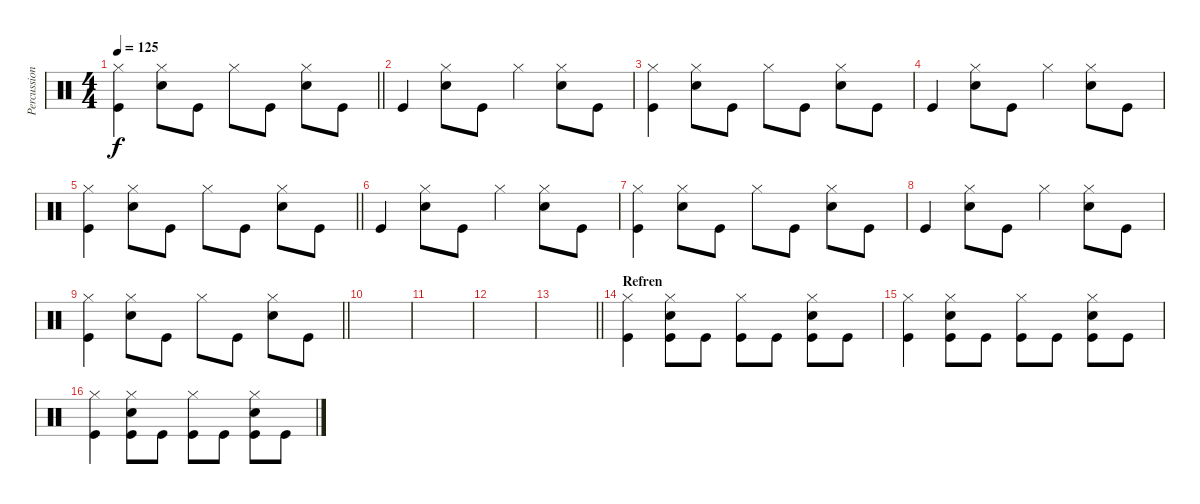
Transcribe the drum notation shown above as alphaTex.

\track ("Percussion" "Percussion") {instrument percussion}
\staff {score}
\articulation defaults
\ts (4 4)
\tempo 125
\clef neutral
\barLineRight lightlight
\ks c
("Hi-Hat (closed)" "Kick (hit)").4{dy f} ("Hi-Hat (closed)" "Snare (hit) 2").8 "Kick (hit)".8 "Hi-Hat (closed)".8 "Kick (hit)".8 ("Hi-Hat (closed)" "Snare (hit) 2").8 "Kick (hit)".8 |
\section ("" "")
"Kick (hit)".4 ("Hi-Hat (closed)" "Snare (hit) 2").8 "Kick (hit)".8 "Hi-Hat (closed)".4 ("Hi-Hat (closed)" "Snare (hit) 2").8 "Kick (hit)".8 |
("Hi-Hat (closed)" "Kick (hit)").4 ("Hi-Hat (closed)" "Snare (hit) 2").8 "Kick (hit)".8 "Hi-Hat (closed)".8 "Kick (hit)".8 ("Hi-Hat (closed)" "Snare (hit) 2").8 "Kick (hit)".8 |
"Kick (hit)".4 ("Hi-Hat (closed)" "Snare (hit) 2").8 "Kick (hit)".8 "Hi-Hat (closed)".4 ("Hi-Hat (closed)" "Snare (hit) 2").8 "Kick (hit)".8 |
\barLineRight lightlight
("Hi-Hat (closed)" "Kick (hit)").4 ("Hi-Hat (closed)" "Snare (hit) 2").8 "Kick (hit)".8 "Hi-Hat (closed)".8 "Kick (hit)".8 ("Hi-Hat (closed)" "Snare (hit) 2").8 "Kick (hit)".8 |
"Kick (hit)".4 ("Hi-Hat (closed)" "Snare (hit) 2").8 "Kick (hit)".8 "Hi-Hat (closed)".4 ("Hi-Hat (closed)" "Snare (hit) 2").8 "Kick (hit)".8 |
("Hi-Hat (closed)" "Kick (hit)").4 ("Hi-Hat (closed)" "Snare (hit) 2").8 "Kick (hit)".8 "Hi-Hat (closed)".8 "Kick (hit)".8 ("Hi-Hat (closed)" "Snare (hit) 2").8 "Kick (hit)".8 |
"Kick (hit)".4 ("Hi-Hat (closed)" "Snare (hit) 2").8 "Kick (hit)".8 "Hi-Hat (closed)".4 ("Hi-Hat (closed)" "Snare (hit) 2").8 "Kick (hit)".8 |
\barLineRight lightlight
("Hi-Hat (closed)" "Kick (hit)").4 ("Hi-Hat (closed)" "Snare (hit) 2").8 "Kick (hit)".8 "Hi-Hat (closed)".8 "Kick (hit)".8 ("Hi-Hat (closed)" "Snare (hit) 2").8 "Kick (hit)".8 |
|
|
|
\barLineRight lightlight
|
\section ("" "Refren")
("Hi-Hat (closed)" "Kick (hit)").4 ("Hi-Hat (closed)" "Kick (hit)" "Snare (hit) 2").8 "Kick (hit)".8 ("Hi-Hat (closed)" "Kick (hit)").8 "Kick (hit)".8 ("Hi-Hat (closed)" "Kick (hit)" "Snare (hit) 2").8 "Kick (hit)".8 |
("Hi-Hat (closed)" "Kick (hit)").4 ("Hi-Hat (closed)" "Kick (hit)" "Snare (hit) 2").8 "Kick (hit)".8 ("Hi-Hat (closed)" "Kick (hit)").8 "Kick (hit)".8 ("Hi-Hat (closed)" "Kick (hit)" "Snare (hit) 2").8 "Kick (hit)".8 |
("Hi-Hat (closed)" "Kick (hit)").4 ("Hi-Hat (closed)" "Kick (hit)" "Snare (hit) 2").8 "Kick (hit)".8 ("Hi-Hat (closed)" "Kick (hit)").8 "Kick (hit)".8 ("Hi-Hat (closed)" "Kick (hit)" "Snare (hit) 2").8 "Kick (hit)".8
